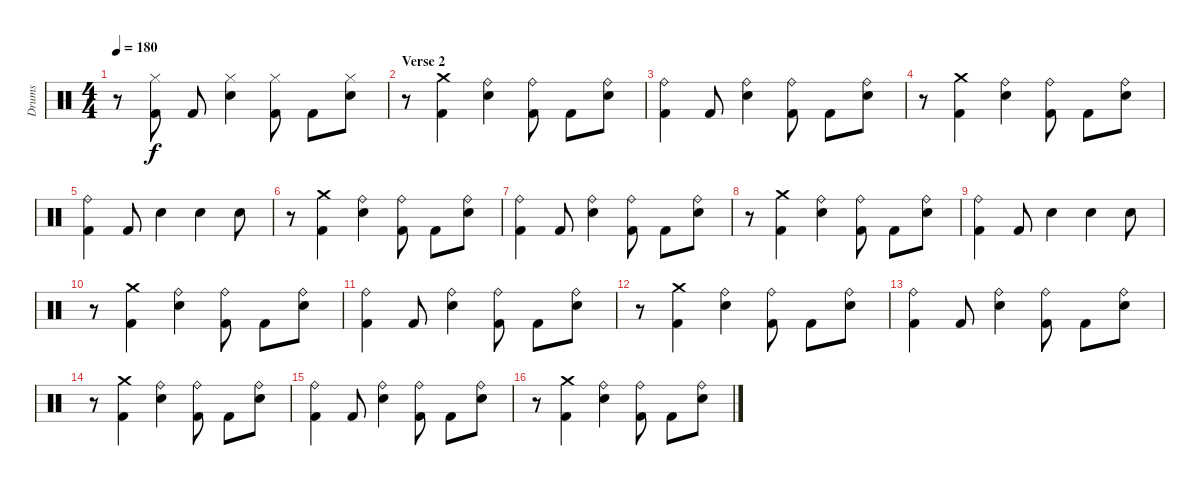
\track ("Drums" "Drums") {instrument percussion}
\staff {score}
\articulation defaults
\ts (4 4)
\tempo 180
\clef neutral
\ks c
r.8{dy f} ("Hi-Hat (closed)" "Kick (hit) 2").8 "Kick (hit) 2".8 ("Hi-Hat (closed)" "Snare (hit) 2").4 ("Hi-Hat (closed)" "Kick (hit) 2").8 "Kick (hit) 2".8 ("Hi-Hat (closed)" "Snare (hit) 2").8 |
\section ("" "Verse 2")
r.8 ("Crash medium (hit)" "Kick (hit) 2").4 ("Ride (bell)" "Snare (hit) 2").4 ("Ride (bell)" "Kick (hit) 2").8 "Kick (hit) 2".8 ("Ride (bell)" "Snare (hit) 2").8 |
("Ride (bell)" "Kick (hit) 2").4 "Kick (hit) 2".8 ("Ride (bell)" "Snare (hit) 2").4 ("Ride (bell)" "Kick (hit) 2").8 "Kick (hit) 2".8 ("Ride (bell)" "Snare (hit) 2").8 |
r.8 ("Crash medium (hit)" "Kick (hit) 2").4 ("Ride (bell)" "Snare (hit) 2").4 ("Ride (bell)" "Kick (hit) 2").8 "Kick (hit) 2".8 ("Ride (bell)" "Snare (hit) 2").8 |
("Ride (bell)" "Kick (hit) 2").4 "Kick (hit) 2".8 "Snare (hit) 2".4 "Snare (hit) 2".4 "Snare (hit) 2".8 |
r.8 ("Crash medium (hit)" "Kick (hit) 2").4 ("Ride (bell)" "Snare (hit) 2").4 ("Ride (bell)" "Kick (hit) 2").8 "Kick (hit) 2".8 ("Ride (bell)" "Snare (hit) 2").8 |
("Ride (bell)" "Kick (hit) 2").4 "Kick (hit) 2".8 ("Ride (bell)" "Snare (hit) 2").4 ("Ride (bell)" "Kick (hit) 2").8 "Kick (hit) 2".8 ("Ride (bell)" "Snare (hit) 2").8 |
r.8 ("Crash medium (hit)" "Kick (hit) 2").4 ("Ride (bell)" "Snare (hit) 2").4 ("Ride (bell)" "Kick (hit) 2").8 "Kick (hit) 2".8 ("Ride (bell)" "Snare (hit) 2").8 |
("Ride (bell)" "Kick (hit) 2").4 "Kick (hit) 2".8 "Snare (hit) 2".4 "Snare (hit) 2".4 "Snare (hit) 2".8 |
r.8 ("Crash medium (hit)" "Kick (hit) 2").4 ("Ride (bell)" "Snare (hit) 2").4 ("Ride (bell)" "Kick (hit) 2").8 "Kick (hit) 2".8 ("Ride (bell)" "Snare (hit) 2").8 |
("Ride (bell)" "Kick (hit) 2").4 "Kick (hit) 2".8 ("Ride (bell)" "Snare (hit) 2").4 ("Ride (bell)" "Kick (hit) 2").8 "Kick (hit) 2".8 ("Ride (bell)" "Snare (hit) 2").8 |
r.8 ("Crash medium (hit)" "Kick (hit) 2").4 ("Ride (bell)" "Snare (hit) 2").4 ("Ride (bell)" "Kick (hit) 2").8 "Kick (hit) 2".8 ("Ride (bell)" "Snare (hit) 2").8 |
("Ride (bell)" "Kick (hit) 2").4 "Kick (hit) 2".8 ("Ride (bell)" "Snare (hit) 2").4 ("Ride (bell)" "Kick (hit) 2").8 "Kick (hit) 2".8 ("Ride (bell)" "Snare (hit) 2").8 |
r.8 ("Crash medium (hit)" "Kick (hit) 2").4 ("Ride (bell)" "Snare (hit) 2").4 ("Ride (bell)" "Kick (hit) 2").8 "Kick (hit) 2".8 ("Ride (bell)" "Snare (hit) 2").8 |
("Ride (bell)" "Kick (hit) 2").4 "Kick (hit) 2".8 ("Ride (bell)" "Snare (hit) 2").4 ("Ride (bell)" "Kick (hit) 2").8 "Kick (hit) 2".8 ("Ride (bell)" "Snare (hit) 2").8 |
r.8 ("Crash medium (hit)" "Kick (hit) 2").4 ("Ride (bell)" "Snare (hit) 2").4 ("Ride (bell)" "Kick (hit) 2").8 "Kick (hit) 2".8 ("Ride (bell)" "Snare (hit) 2").8
